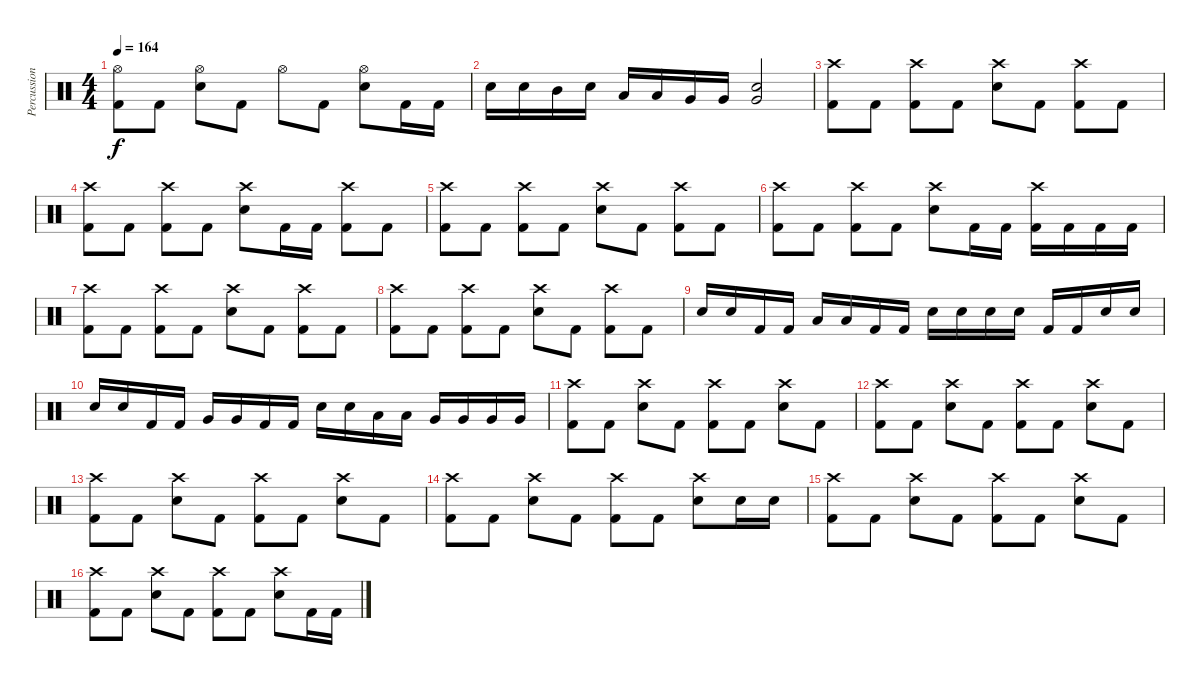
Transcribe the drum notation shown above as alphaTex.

\track ("Percussion" "Percussion") {instrument percussion}
\staff {score}
\articulation defaults
\ts (4 4)
\tempo 164
\clef neutral
\ks c
("Hi-Hat (open)" "Kick (hit) 2").8{dy f} "Kick (hit) 2".8 ("Hi-Hat (open)" "Electric Snare (hit)").8 "Kick (hit) 2".8 "Hi-Hat (open)".8 "Kick (hit) 2".8 ("Hi-Hat (open)" "Electric Snare (hit)").8 "Kick (hit) 2".16 "Kick (hit) 2".16 |
"Electric Snare (hit)".16 "Electric Snare (hit)".16 "Mid Tom (hit)".16 "Electric Snare (hit)".16 "Low Tom (hit)".16 "Low Tom (hit)".16 "Very Low Tom (hit)".16 "Very Low Tom (hit)".16 ("Very Low Tom (hit)" "Electric Snare (hit)").2 |
("Crash high (hit)" "Kick (hit) 2").8 "Kick (hit) 2".8 ("Crash high (hit)" "Kick (hit) 2").8 "Kick (hit) 2".8 ("Crash high (hit)" "Electric Snare (hit)").8 "Kick (hit) 2".8 ("Crash high (hit)" "Kick (hit) 2").8 "Kick (hit) 2".8 |
("Crash high (hit)" "Kick (hit) 2").8 "Kick (hit) 2".8 ("Crash high (hit)" "Kick (hit) 2").8 "Kick (hit) 2".8 ("Crash high (hit)" "Electric Snare (hit)").8 "Kick (hit) 2".16 "Kick (hit) 2".16 ("Crash high (hit)" "Kick (hit) 2").8 "Kick (hit) 2".8 |
("Crash high (hit)" "Kick (hit) 2").8 "Kick (hit) 2".8 ("Crash high (hit)" "Kick (hit) 2").8 "Kick (hit) 2".8 ("Crash high (hit)" "Electric Snare (hit)").8 "Kick (hit) 2".8 ("Crash high (hit)" "Kick (hit) 2").8 "Kick (hit) 2".8 |
("Crash high (hit)" "Kick (hit) 2").8 "Kick (hit) 2".8 ("Crash high (hit)" "Kick (hit) 2").8 "Kick (hit) 2".8 ("Crash high (hit)" "Electric Snare (hit)").8 "Kick (hit) 2".16 "Kick (hit) 2".16 ("Crash high (hit)" "Kick (hit) 2").16 "Kick (hit) 2".16 "Kick (hit) 2".16 "Kick (hit) 2".16 |
("Crash high (hit)" "Kick (hit) 2").8 "Kick (hit) 2".8 ("Crash high (hit)" "Kick (hit) 2").8 "Kick (hit) 2".8 ("Crash high (hit)" "Electric Snare (hit)").8 "Kick (hit) 2".8 ("Crash high (hit)" "Kick (hit) 2").8 "Kick (hit) 2".8 |
("Crash high (hit)" "Kick (hit) 2").8 "Kick (hit) 2".8 ("Crash high (hit)" "Kick (hit) 2").8 "Kick (hit) 2".8 ("Crash high (hit)" "Electric Snare (hit)").8 "Kick (hit) 2".8 ("Crash high (hit)" "Kick (hit) 2").8 "Kick (hit) 2".8 |
"Electric Snare (hit)".16 "Electric Snare (hit)".16 "Kick (hit) 2".16 "Kick (hit) 2".16 "Low Tom (hit)".16 "Low Tom (hit)".16 "Kick (hit) 2".16 "Kick (hit) 2".16 "Electric Snare (hit)".16 "Electric Snare (hit)".16 "Electric Snare (hit)".16 "Electric Snare (hit)".16 "Kick (hit) 2".16 "Kick (hit) 2".16 "Electric Snare (hit)".16 "Electric Snare (hit)".16 |
"Electric Snare (hit)".16 "Electric Snare (hit)".16 "Kick (hit) 2".16 "Kick (hit) 2".16 "Very Low Tom (hit)".16 "Very Low Tom (hit)".16 "Kick (hit) 2".16 "Kick (hit) 2".16 "Electric Snare (hit)".16 "Electric Snare (hit)".16 "Low Tom (hit)".16 "Low Tom (hit)".16 "Very Low Tom (hit)".16 "Very Low Tom (hit)".16 "Very Low Tom (hit)".16 "Very Low Tom (hit)".16 |
("Crash high (hit)" "Kick (hit) 2").8 "Kick (hit) 2".8 ("Crash high (hit)" "Electric Snare (hit)").8 "Kick (hit) 2".8 ("Crash high (hit)" "Kick (hit) 2").8 "Kick (hit) 2".8 ("Crash high (hit)" "Electric Snare (hit)").8 "Kick (hit) 2".8 |
("Crash high (hit)" "Kick (hit) 2").8 "Kick (hit) 2".8 ("Crash high (hit)" "Electric Snare (hit)").8 "Kick (hit) 2".8 ("Crash high (hit)" "Kick (hit) 2").8 "Kick (hit) 2".8 ("Crash high (hit)" "Electric Snare (hit)").8 "Kick (hit) 2".8 |
("Crash high (hit)" "Kick (hit) 2").8 "Kick (hit) 2".8 ("Crash high (hit)" "Electric Snare (hit)").8 "Kick (hit) 2".8 ("Crash high (hit)" "Kick (hit) 2").8 "Kick (hit) 2".8 ("Crash high (hit)" "Electric Snare (hit)").8 "Kick (hit) 2".8 |
("Crash high (hit)" "Kick (hit) 2").8 "Kick (hit) 2".8 ("Crash high (hit)" "Electric Snare (hit)").8 "Kick (hit) 2".8 ("Crash high (hit)" "Kick (hit) 2").8 "Kick (hit) 2".8 ("Crash high (hit)" "Electric Snare (hit)").8 "Electric Snare (hit)".16 "Electric Snare (hit)".16 |
("Crash high (hit)" "Kick (hit) 2").8 "Kick (hit) 2".8 ("Crash high (hit)" "Electric Snare (hit)").8 "Kick (hit) 2".8 ("Crash high (hit)" "Kick (hit) 2").8 "Kick (hit) 2".8 ("Crash high (hit)" "Electric Snare (hit)").8 "Kick (hit) 2".8 |
("Crash high (hit)" "Kick (hit) 2").8 "Kick (hit) 2".8 ("Crash high (hit)" "Electric Snare (hit)").8 "Kick (hit) 2".8 ("Crash high (hit)" "Kick (hit) 2").8 "Kick (hit) 2".8 ("Crash high (hit)" "Electric Snare (hit)").8 "Kick (hit) 2".16 "Kick (hit) 2".16
